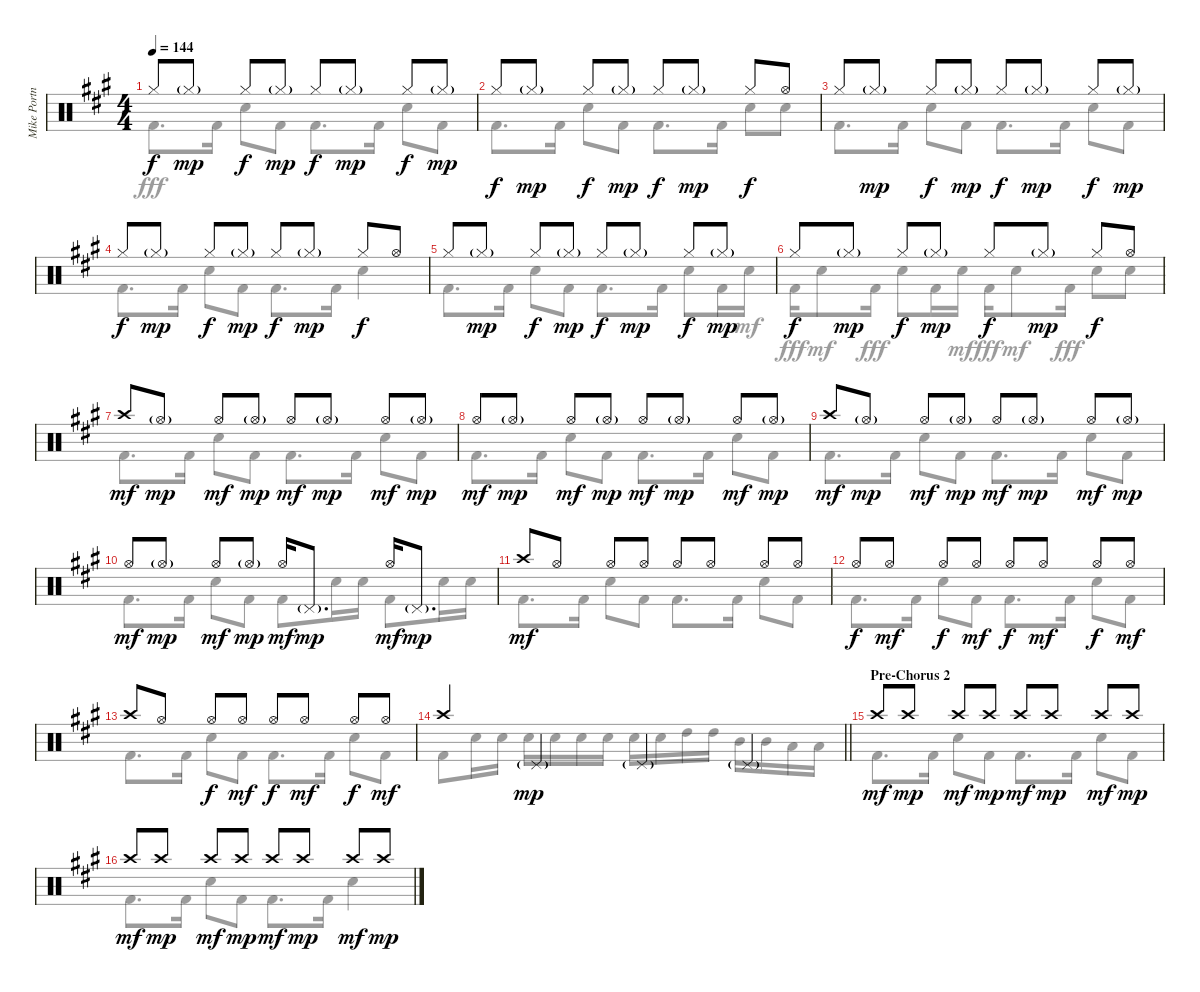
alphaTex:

\track ("Mike Portnoy Drums" "Mike Portn") {instrument percussion}
\staff {score}
\articulation defaults
\voice
\ts (4 4)
\tempo 144
\clef neutral
\ks f#minor "Hi-Hat (closed)".8{dy f} "Hi-Hat (closed)"{g}.8{dy mp} "Hi-Hat (closed)".8{dy f} "Hi-Hat (closed)"{g}.8{dy mp} "Hi-Hat (closed)".8{dy f} "Hi-Hat (closed)"{g}.8{dy mp} "Hi-Hat (closed)".8{dy f} "Hi-Hat (closed)"{g}.8{dy mp}
|
"Hi-Hat (closed)".8{dy f} "Hi-Hat (closed)"{g}.8{dy mp} "Hi-Hat (closed)".8{dy f} "Hi-Hat (closed)"{g}.8{dy mp} "Hi-Hat (closed)".8{dy f} "Hi-Hat (closed)"{g}.8{dy mp} "Hi-Hat (closed)".8{dy f} "Hi-Hat (open)".8 |
"Hi-Hat (closed)".8 "Hi-Hat (closed)"{g}.8{dy mp} "Hi-Hat (closed)".8{dy f} "Hi-Hat (closed)"{g}.8{dy mp} "Hi-Hat (closed)".8{dy f} "Hi-Hat (closed)"{g}.8{dy mp} "Hi-Hat (closed)".8{dy f} "Hi-Hat (closed)"{g}.8{dy mp} |
"Hi-Hat (closed)".8{dy f} "Hi-Hat (closed)"{g}.8{dy mp} "Hi-Hat (closed)".8{dy f} "Hi-Hat (closed)"{g}.8{dy mp} "Hi-Hat (closed)".8{dy f} "Hi-Hat (closed)"{g}.8{dy mp} "Hi-Hat (closed)".8{dy f} "Hi-Hat (open)".8 |
"Hi-Hat (closed)".8 "Hi-Hat (closed)"{g}.8{dy mp} "Hi-Hat (closed)".8{dy f} "Hi-Hat (closed)"{g}.8{dy mp} "Hi-Hat (closed)".8{dy f} "Hi-Hat (closed)"{g}.8{dy mp} "Hi-Hat (closed)".8{dy f} "Hi-Hat (closed)"{g}.8{dy mp} |
"Hi-Hat (closed)".8{dy f} "Hi-Hat (closed)"{g}.8{dy mp} "Hi-Hat (closed)".8{dy f} "Hi-Hat (closed)"{g}.8{dy mp} "Hi-Hat (closed)".8{dy f} "Hi-Hat (closed)"{g}.8{dy mp} "Hi-Hat (closed)".8{dy f} "Hi-Hat (open)".8 |
"Crash high (hit)".8{dy mf} "Hi-Hat (open)"{g}.8{dy mp} "Hi-Hat (open)".8{dy mf} "Hi-Hat (open)"{g}.8{dy mp} "Hi-Hat (open)".8{dy mf} "Hi-Hat (open)"{g}.8{dy mp} "Hi-Hat (open)".8{dy mf} "Hi-Hat (open)"{g}.8{dy mp} |
"Hi-Hat (open)".8{dy mf} "Hi-Hat (open)"{g}.8{dy mp} "Hi-Hat (open)".8{dy mf} "Hi-Hat (open)"{g}.8{dy mp} "Hi-Hat (open)".8{dy mf} "Hi-Hat (open)"{g}.8{dy mp} "Hi-Hat (open)".8{dy mf} "Hi-Hat (open)"{g}.8{dy mp} |
"Crash high (hit)".8{dy mf} "Hi-Hat (open)"{g}.8{dy mp} "Hi-Hat (open)".8{dy mf} "Hi-Hat (open)"{g}.8{dy mp} "Hi-Hat (open)".8{dy mf} "Hi-Hat (open)"{g}.8{dy mp} "Hi-Hat (open)".8{dy mf} "Hi-Hat (open)"{g}.8{dy mp} |
"Hi-Hat (open)".8{dy mf} "Hi-Hat (open)"{g}.8{dy mp} "Hi-Hat (open)".8{dy mf} "Hi-Hat (open)"{g}.8{dy mp} "Hi-Hat (open)".16{dy mf} "Pedal Hi-Hat (hit)"{g}.8{d dy mp} "Hi-Hat (open)".16{dy mf} "Pedal Hi-Hat (hit)"{g}.8{d dy mp} |
"Crash high (hit)".8{dy mf} "Hi-Hat (open)".8 "Hi-Hat (open)".8 "Hi-Hat (open)".8 "Hi-Hat (open)".8 "Hi-Hat (open)".8 "Hi-Hat (open)".8 "Hi-Hat (open)".8 |
"Hi-Hat (open)".8{dy f} "Hi-Hat (open)".8{dy mf} "Hi-Hat (open)".8{dy f} "Hi-Hat (open)".8{dy mf} "Hi-Hat (open)".8{dy f} "Hi-Hat (open)".8{dy mf} "Hi-Hat (open)".8{dy f} "Hi-Hat (open)".8{dy mf} |
"Crash high (hit)".8 "Hi-Hat (open)".8 "Hi-Hat (open)".8{dy f} "Hi-Hat (open)".8{dy mf} "Hi-Hat (open)".8{dy f} "Hi-Hat (open)".8{dy mf} "Hi-Hat (open)".8{dy f} "Hi-Hat (open)".8{dy mf} |
\barLineRight lightlight "Crash high (hit)".4 "Pedal Hi-Hat (hit)"{g}.4{dy mp} "Pedal Hi-Hat (hit)"{g}.4 "Pedal Hi-Hat (hit)"{g}.4
|
\section ("" "Pre-Chorus 2")
"Crash high (hit)".8{dy mf} "Crash high (hit)".8{dy mp} "Crash high (hit)".8{dy mf} "Crash high (hit)".8{dy mp} "Crash high (hit)".8{dy mf} "Crash high (hit)".8{dy mp} "Crash high (hit)".8{dy mf} "Crash high (hit)".8{dy mp} |
"Crash high (hit)".8{dy mf} "Crash high (hit)".8{dy mp} "Crash high (hit)".8{dy mf} "Crash high (hit)".8{dy mp} "Crash high (hit)".8{dy mf} "Crash high (hit)".8{dy mp} "Crash high (hit)".8{dy mf} "Crash high (hit)".8{dy mp}
\voice
\clef neutral
\ottava regular
\simile none
\ks f#minor "Kick (hit) 2".8{d dy fff} "Kick (hit) 2".16 "Snare (hit) 2".8 "Kick (hit) 2".8 "Kick (hit) 2".8{d} "Kick (hit) 2".16 "Snare (hit) 2".8 "Kick (hit) 2".8
|
"Kick (hit) 2".8{d} "Kick (hit) 2".16 "Snare (hit) 2".8 "Kick (hit) 2".8 "Kick (hit) 2".8{d} "Kick (hit) 2".16 "Snare (hit) 2".8 "Snare (hit) 2".8 |
"Kick (hit) 2".8{d} "Kick (hit) 2".16 "Snare (hit) 2".8 "Kick (hit) 2".8 "Kick (hit) 2".8{d} "Kick (hit) 2".16 "Snare (hit) 2".8 "Kick (hit) 2".8 |
"Kick (hit) 2".8{d} "Kick (hit) 2".16 "Snare (hit) 2".8 "Kick (hit) 2".8 "Kick (hit) 2".8{d} "Kick (hit) 2".16 "Snare (hit) 2".4 |
"Kick (hit) 2".8{d} "Kick (hit) 2".16 "Snare (hit) 2".8 "Kick (hit) 2".8 "Kick (hit) 2".8{d} "Kick (hit) 2".16 "Snare (hit) 2".8 "Kick (hit) 2".16 "Snare (hit) 2".16{dy mf} |
"Kick (hit) 2".16{dy fff} "Snare (hit) 2".8{dy mf} "Kick (hit) 2".16{dy fff} "Snare (hit) 2".8 "Kick (hit) 2".16 "Snare (hit) 2".16{dy mf} "Kick (hit) 2".16{dy fff} "Snare (hit) 2".8{dy mf} "Kick (hit) 2".16{dy fff} "Snare (hit) 2".8 "Snare (hit) 2".8 |
"Kick (hit) 2".8{d} "Kick (hit) 2".16 "Snare (hit) 2".8 "Kick (hit) 2".8 "Kick (hit) 2".8{d} "Kick (hit) 2".16 "Snare (hit) 2".8 "Kick (hit) 2".8 |
"Kick (hit) 2".8{d} "Kick (hit) 2".16 "Snare (hit) 2".8 "Kick (hit) 2".8 "Kick (hit) 2".8{d} "Kick (hit) 2".16 "Snare (hit) 2".8 "Kick (hit) 2".8 |
"Kick (hit) 2".8{d} "Kick (hit) 2".16 "Snare (hit) 2".8 "Kick (hit) 2".8 "Kick (hit) 2".8{d} "Kick (hit) 2".16 "Snare (hit) 2".8 "Kick (hit) 2".8 |
"Kick (hit) 2".8{d} "Kick (hit) 2".16 "Snare (hit) 2".8 "Kick (hit) 2".8 "Kick (hit) 2".8 "Snare (hit) 2".16 "Snare (hit) 2".16 "Kick (hit) 2".8 "Snare (hit) 2".16 "Snare (hit) 2".16 |
"Kick (hit) 2".8{d} "Kick (hit) 2".16 "Snare (hit) 2".8 "Kick (hit) 2".8 "Kick (hit) 2".8{d} "Kick (hit) 2".16 "Snare (hit) 2".8 "Kick (hit) 2".8 |
"Kick (hit) 2".8{d} "Kick (hit) 2".16 "Snare (hit) 2".8 "Kick (hit) 2".8 "Kick (hit) 2".8{d} "Kick (hit) 2".16 "Snare (hit) 2".8 "Kick (hit) 2".8 |
"Kick (hit) 2".8{d} "Kick (hit) 2".16 "Snare (hit) 2".8 "Kick (hit) 2".8 "Kick (hit) 2".8{d} "Kick (hit) 2".16 "Snare (hit) 2".8 "Kick (hit) 2".8 |
\barLineRight lightlight "Kick (hit) 2".8 "Snare (hit) 2".16 "Snare (hit) 2".16 "Snare (hit) 2".16 "Snare (hit) 2".16 "Snare (hit) 2".16 "Snare (hit) 2".16 "Snare (hit) 2".16 "Snare (hit) 2".16 "High Tom (hit)".16 "High Tom (hit)".16 "Mid Tom (hit)".16 "Mid Tom (hit)".16 "Low Tom (hit)".16 "Low Tom (hit)".16
|
"Kick (hit) 2".8{d} "Kick (hit) 2".16 "Snare (hit) 2".8 "Kick (hit) 2".8 "Kick (hit) 2".8{d} "Kick (hit) 2".16 "Snare (hit) 2".8 "Kick (hit) 2".8 |
"Kick (hit) 2".8{d} "Kick (hit) 2".16 "Snare (hit) 2".8 "Kick (hit) 2".8 "Kick (hit) 2".8{d} "Kick (hit) 2".16 "Snare (hit) 2".4
